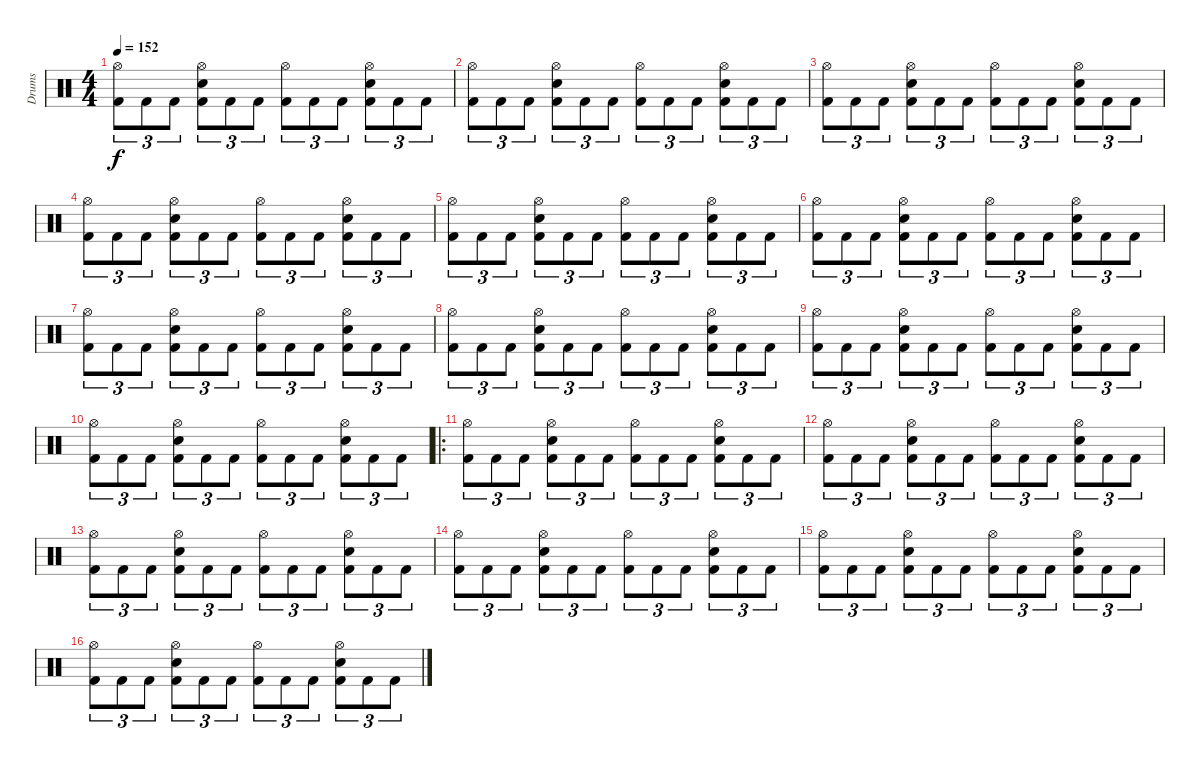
\track ("Drums" "Drums") {instrument percussion}
\staff {score}
\articulation defaults
\ts (4 4)
\tempo 152
\clef neutral
\ks c
("Hi-Hat (open)" "Kick (hit) 2").8{tu (3 2) dy f} "Kick (hit) 2".8{tu (3 2)} "Kick (hit) 2".8{tu (3 2)} ("Hi-Hat (open)" "Snare (hit) 2" "Kick (hit) 2").8{tu (3 2)} "Kick (hit) 2".8{tu (3 2)} "Kick (hit) 2".8{tu (3 2)} ("Hi-Hat (open)" "Kick (hit) 2").8{tu (3 2)} "Kick (hit) 2".8{tu (3 2)} "Kick (hit) 2".8{tu (3 2)} ("Hi-Hat (open)" "Snare (hit) 2" "Kick (hit) 2").8{tu (3 2)} "Kick (hit) 2".8{tu (3 2)} "Kick (hit) 2".8{tu (3 2)} |
("Hi-Hat (open)" "Kick (hit) 2").8{tu (3 2)} "Kick (hit) 2".8{tu (3 2)} "Kick (hit) 2".8{tu (3 2)} ("Hi-Hat (open)" "Snare (hit) 2" "Kick (hit) 2").8{tu (3 2)} "Kick (hit) 2".8{tu (3 2)} "Kick (hit) 2".8{tu (3 2)} ("Hi-Hat (open)" "Kick (hit) 2").8{tu (3 2)} "Kick (hit) 2".8{tu (3 2)} "Kick (hit) 2".8{tu (3 2)} ("Hi-Hat (open)" "Snare (hit) 2" "Kick (hit) 2").8{tu (3 2)} "Kick (hit) 2".8{tu (3 2)} "Kick (hit) 2".8{tu (3 2)} |
("Hi-Hat (open)" "Kick (hit) 2").8{tu (3 2)} "Kick (hit) 2".8{tu (3 2)} "Kick (hit) 2".8{tu (3 2)} ("Hi-Hat (open)" "Snare (hit) 2" "Kick (hit) 2").8{tu (3 2)} "Kick (hit) 2".8{tu (3 2)} "Kick (hit) 2".8{tu (3 2)} ("Hi-Hat (open)" "Kick (hit) 2").8{tu (3 2)} "Kick (hit) 2".8{tu (3 2)} "Kick (hit) 2".8{tu (3 2)} ("Hi-Hat (open)" "Snare (hit) 2" "Kick (hit) 2").8{tu (3 2)} "Kick (hit) 2".8{tu (3 2)} "Kick (hit) 2".8{tu (3 2)} |
("Hi-Hat (open)" "Kick (hit) 2").8{tu (3 2)} "Kick (hit) 2".8{tu (3 2)} "Kick (hit) 2".8{tu (3 2)} ("Hi-Hat (open)" "Snare (hit) 2" "Kick (hit) 2").8{tu (3 2)} "Kick (hit) 2".8{tu (3 2)} "Kick (hit) 2".8{tu (3 2)} ("Hi-Hat (open)" "Kick (hit) 2").8{tu (3 2)} "Kick (hit) 2".8{tu (3 2)} "Kick (hit) 2".8{tu (3 2)} ("Hi-Hat (open)" "Snare (hit) 2" "Kick (hit) 2").8{tu (3 2)} "Kick (hit) 2".8{tu (3 2)} "Kick (hit) 2".8{tu (3 2)} |
("Hi-Hat (open)" "Kick (hit) 2").8{tu (3 2)} "Kick (hit) 2".8{tu (3 2)} "Kick (hit) 2".8{tu (3 2)} ("Hi-Hat (open)" "Snare (hit) 2" "Kick (hit) 2").8{tu (3 2)} "Kick (hit) 2".8{tu (3 2)} "Kick (hit) 2".8{tu (3 2)} ("Hi-Hat (open)" "Kick (hit) 2").8{tu (3 2)} "Kick (hit) 2".8{tu (3 2)} "Kick (hit) 2".8{tu (3 2)} ("Hi-Hat (open)" "Snare (hit) 2" "Kick (hit) 2").8{tu (3 2)} "Kick (hit) 2".8{tu (3 2)} "Kick (hit) 2".8{tu (3 2)} |
("Hi-Hat (open)" "Kick (hit) 2").8{tu (3 2)} "Kick (hit) 2".8{tu (3 2)} "Kick (hit) 2".8{tu (3 2)} ("Hi-Hat (open)" "Snare (hit) 2" "Kick (hit) 2").8{tu (3 2)} "Kick (hit) 2".8{tu (3 2)} "Kick (hit) 2".8{tu (3 2)} ("Hi-Hat (open)" "Kick (hit) 2").8{tu (3 2)} "Kick (hit) 2".8{tu (3 2)} "Kick (hit) 2".8{tu (3 2)} ("Hi-Hat (open)" "Snare (hit) 2" "Kick (hit) 2").8{tu (3 2)} "Kick (hit) 2".8{tu (3 2)} "Kick (hit) 2".8{tu (3 2)} |
("Hi-Hat (open)" "Kick (hit) 2").8{tu (3 2)} "Kick (hit) 2".8{tu (3 2)} "Kick (hit) 2".8{tu (3 2)} ("Hi-Hat (open)" "Snare (hit) 2" "Kick (hit) 2").8{tu (3 2)} "Kick (hit) 2".8{tu (3 2)} "Kick (hit) 2".8{tu (3 2)} ("Hi-Hat (open)" "Kick (hit) 2").8{tu (3 2)} "Kick (hit) 2".8{tu (3 2)} "Kick (hit) 2".8{tu (3 2)} ("Hi-Hat (open)" "Snare (hit) 2" "Kick (hit) 2").8{tu (3 2)} "Kick (hit) 2".8{tu (3 2)} "Kick (hit) 2".8{tu (3 2)} |
("Hi-Hat (open)" "Kick (hit) 2").8{tu (3 2)} "Kick (hit) 2".8{tu (3 2)} "Kick (hit) 2".8{tu (3 2)} ("Hi-Hat (open)" "Snare (hit) 2" "Kick (hit) 2").8{tu (3 2)} "Kick (hit) 2".8{tu (3 2)} "Kick (hit) 2".8{tu (3 2)} ("Hi-Hat (open)" "Kick (hit) 2").8{tu (3 2)} "Kick (hit) 2".8{tu (3 2)} "Kick (hit) 2".8{tu (3 2)} ("Hi-Hat (open)" "Snare (hit) 2" "Kick (hit) 2").8{tu (3 2)} "Kick (hit) 2".8{tu (3 2)} "Kick (hit) 2".8{tu (3 2)} |
("Hi-Hat (open)" "Kick (hit) 2").8{tu (3 2)} "Kick (hit) 2".8{tu (3 2)} "Kick (hit) 2".8{tu (3 2)} ("Hi-Hat (open)" "Snare (hit) 2" "Kick (hit) 2").8{tu (3 2)} "Kick (hit) 2".8{tu (3 2)} "Kick (hit) 2".8{tu (3 2)} ("Hi-Hat (open)" "Kick (hit) 2").8{tu (3 2)} "Kick (hit) 2".8{tu (3 2)} "Kick (hit) 2".8{tu (3 2)} ("Hi-Hat (open)" "Snare (hit) 2" "Kick (hit) 2").8{tu (3 2)} "Kick (hit) 2".8{tu (3 2)} "Kick (hit) 2".8{tu (3 2)} |
("Hi-Hat (open)" "Kick (hit) 2").8{tu (3 2)} "Kick (hit) 2".8{tu (3 2)} "Kick (hit) 2".8{tu (3 2)} ("Hi-Hat (open)" "Snare (hit) 2" "Kick (hit) 2").8{tu (3 2)} "Kick (hit) 2".8{tu (3 2)} "Kick (hit) 2".8{tu (3 2)} ("Hi-Hat (open)" "Kick (hit) 2").8{tu (3 2)} "Kick (hit) 2".8{tu (3 2)} "Kick (hit) 2".8{tu (3 2)} ("Hi-Hat (open)" "Snare (hit) 2" "Kick (hit) 2").8{tu (3 2)} "Kick (hit) 2".8{tu (3 2)} "Kick (hit) 2".8{tu (3 2)} |
\ro
("Hi-Hat (open)" "Kick (hit) 2").8{tu (3 2)} "Kick (hit) 2".8{tu (3 2)} "Kick (hit) 2".8{tu (3 2)} ("Hi-Hat (open)" "Snare (hit) 2" "Kick (hit) 2").8{tu (3 2)} "Kick (hit) 2".8{tu (3 2)} "Kick (hit) 2".8{tu (3 2)} ("Hi-Hat (open)" "Kick (hit) 2").8{tu (3 2)} "Kick (hit) 2".8{tu (3 2)} "Kick (hit) 2".8{tu (3 2)} ("Hi-Hat (open)" "Snare (hit) 2" "Kick (hit) 2").8{tu (3 2)} "Kick (hit) 2".8{tu (3 2)} "Kick (hit) 2".8{tu (3 2)} |
("Hi-Hat (open)" "Kick (hit) 2").8{tu (3 2)} "Kick (hit) 2".8{tu (3 2)} "Kick (hit) 2".8{tu (3 2)} ("Hi-Hat (open)" "Snare (hit) 2" "Kick (hit) 2").8{tu (3 2)} "Kick (hit) 2".8{tu (3 2)} "Kick (hit) 2".8{tu (3 2)} ("Hi-Hat (open)" "Kick (hit) 2").8{tu (3 2)} "Kick (hit) 2".8{tu (3 2)} "Kick (hit) 2".8{tu (3 2)} ("Hi-Hat (open)" "Snare (hit) 2" "Kick (hit) 2").8{tu (3 2)} "Kick (hit) 2".8{tu (3 2)} "Kick (hit) 2".8{tu (3 2)} |
("Hi-Hat (open)" "Kick (hit) 2").8{tu (3 2)} "Kick (hit) 2".8{tu (3 2)} "Kick (hit) 2".8{tu (3 2)} ("Hi-Hat (open)" "Snare (hit) 2" "Kick (hit) 2").8{tu (3 2)} "Kick (hit) 2".8{tu (3 2)} "Kick (hit) 2".8{tu (3 2)} ("Hi-Hat (open)" "Kick (hit) 2").8{tu (3 2)} "Kick (hit) 2".8{tu (3 2)} "Kick (hit) 2".8{tu (3 2)} ("Hi-Hat (open)" "Snare (hit) 2" "Kick (hit) 2").8{tu (3 2)} "Kick (hit) 2".8{tu (3 2)} "Kick (hit) 2".8{tu (3 2)} |
("Hi-Hat (open)" "Kick (hit) 2").8{tu (3 2)} "Kick (hit) 2".8{tu (3 2)} "Kick (hit) 2".8{tu (3 2)} ("Hi-Hat (open)" "Snare (hit) 2" "Kick (hit) 2").8{tu (3 2)} "Kick (hit) 2".8{tu (3 2)} "Kick (hit) 2".8{tu (3 2)} ("Hi-Hat (open)" "Kick (hit) 2").8{tu (3 2)} "Kick (hit) 2".8{tu (3 2)} "Kick (hit) 2".8{tu (3 2)} ("Hi-Hat (open)" "Snare (hit) 2" "Kick (hit) 2").8{tu (3 2)} "Kick (hit) 2".8{tu (3 2)} "Kick (hit) 2".8{tu (3 2)} |
("Hi-Hat (open)" "Kick (hit) 2").8{tu (3 2)} "Kick (hit) 2".8{tu (3 2)} "Kick (hit) 2".8{tu (3 2)} ("Hi-Hat (open)" "Snare (hit) 2" "Kick (hit) 2").8{tu (3 2)} "Kick (hit) 2".8{tu (3 2)} "Kick (hit) 2".8{tu (3 2)} ("Hi-Hat (open)" "Kick (hit) 2").8{tu (3 2)} "Kick (hit) 2".8{tu (3 2)} "Kick (hit) 2".8{tu (3 2)} ("Hi-Hat (open)" "Snare (hit) 2" "Kick (hit) 2").8{tu (3 2)} "Kick (hit) 2".8{tu (3 2)} "Kick (hit) 2".8{tu (3 2)} |
("Hi-Hat (open)" "Kick (hit) 2").8{tu (3 2)} "Kick (hit) 2".8{tu (3 2)} "Kick (hit) 2".8{tu (3 2)} ("Hi-Hat (open)" "Snare (hit) 2" "Kick (hit) 2").8{tu (3 2)} "Kick (hit) 2".8{tu (3 2)} "Kick (hit) 2".8{tu (3 2)} ("Hi-Hat (open)" "Kick (hit) 2").8{tu (3 2)} "Kick (hit) 2".8{tu (3 2)} "Kick (hit) 2".8{tu (3 2)} ("Hi-Hat (open)" "Snare (hit) 2" "Kick (hit) 2").8{tu (3 2)} "Kick (hit) 2".8{tu (3 2)} "Kick (hit) 2".8{tu (3 2)}
